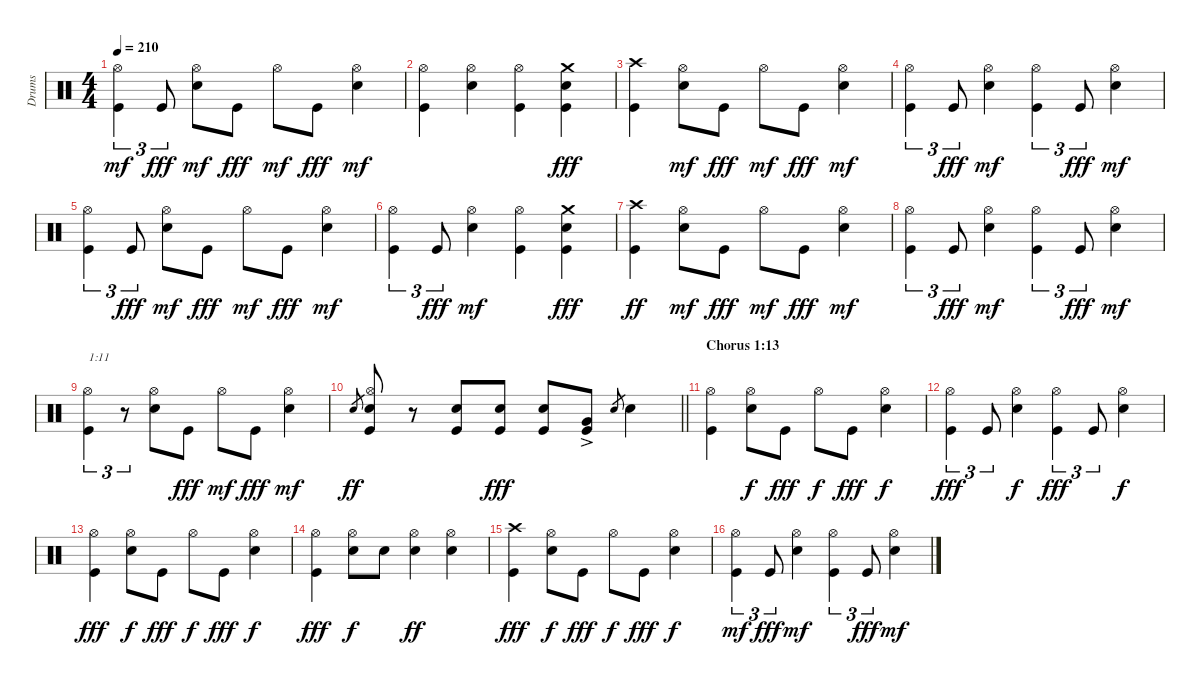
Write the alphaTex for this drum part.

\track ("Drums" "Drums") {instrument percussion}
\staff {score}
\articulation defaults
\ts (4 4)
\tempo 210
\clef neutral
\ks c
("Kick (hit)" "Hi-Hat (open)").4{tu (3 2) dy mf} "Kick (hit)".8{tu (3 2) dy fff} ("Electric Snare (hit)" "Hi-Hat (open)").8{dy mf} "Kick (hit)".8{dy fff} "Hi-Hat (open)".8{dy mf} "Kick (hit)".8{dy fff} ("Electric Snare (hit)" "Hi-Hat (open)").4{dy mf} |
("Kick (hit)" "Hi-Hat (open)").4 ("Electric Snare (hit)" "Hi-Hat (open)").4 ("Kick (hit)" "Hi-Hat (open)").4 ("Kick (hit)" "Electric Snare (hit)" "Crash medium (hit)").4{dy fff} |
("Kick (hit)" "Crash high (hit)").4 ("Electric Snare (hit)" "Hi-Hat (open)").8{dy mf} "Kick (hit)".8{dy fff} "Hi-Hat (open)".8{dy mf} "Kick (hit)".8{dy fff} ("Electric Snare (hit)" "Hi-Hat (open)").4{dy mf} |
("Kick (hit)" "Hi-Hat (open)").4{tu (3 2)} "Kick (hit)".8{tu (3 2) dy fff} ("Electric Snare (hit)" "Hi-Hat (open)").4{dy mf} ("Kick (hit)" "Hi-Hat (open)").4{tu (3 2)} "Kick (hit)".8{tu (3 2) dy fff} ("Electric Snare (hit)" "Hi-Hat (open)").4{dy mf} |
("Kick (hit)" "Hi-Hat (open)").4{tu (3 2)} "Kick (hit)".8{tu (3 2) dy fff} ("Electric Snare (hit)" "Hi-Hat (open)").8{dy mf} "Kick (hit)".8{dy fff} "Hi-Hat (open)".8{dy mf} "Kick (hit)".8{dy fff} ("Electric Snare (hit)" "Hi-Hat (open)").4{dy mf} |
("Kick (hit)" "Hi-Hat (open)").4{tu (3 2)} "Kick (hit)".8{tu (3 2) dy fff} ("Electric Snare (hit)" "Hi-Hat (open)").4{dy mf} ("Kick (hit)" "Hi-Hat (open)").4 ("Kick (hit)" "Electric Snare (hit)" "Crash medium (hit)").4{dy fff} |
("Kick (hit)" "Crash high (hit)").4{dy ff} ("Electric Snare (hit)" "Hi-Hat (open)").8{dy mf} "Kick (hit)".8{dy fff} "Hi-Hat (open)".8{dy mf} "Kick (hit)".8{dy fff} ("Electric Snare (hit)" "Hi-Hat (open)").4{dy mf} |
("Kick (hit)" "Hi-Hat (open)").4{tu (3 2)} "Kick (hit)".8{tu (3 2) dy fff} ("Electric Snare (hit)" "Hi-Hat (open)").4{dy mf} ("Kick (hit)" "Hi-Hat (open)").4{tu (3 2)} "Kick (hit)".8{tu (3 2) dy fff} ("Electric Snare (hit)" "Hi-Hat (open)").4{dy mf} |
("Kick (hit)" "Hi-Hat (open)").4{tu (3 2) txt "1:11"} r.8{tu (3 2)} ("Electric Snare (hit)" "Hi-Hat (open)").8 "Kick (hit)".8{dy fff} "Hi-Hat (open)".8{dy mf} "Kick (hit)".8{dy fff} ("Electric Snare (hit)" "Hi-Hat (open)").4{dy mf} |
\barLineRight lightlight "Electric Snare (hit)".8{gr dy ff}
("Kick (hit)" "Electric Snare (hit)" "Hi-Hat (open)").8 r.8 ("Kick (hit)" "Electric Snare (hit)").8 ("Kick (hit)" "Electric Snare (hit)").8{dy fff} ("Kick (hit)" "Electric Snare (hit)").8 ("Kick (hit)" "Very Low Tom (hit)"{ac}).8 "Electric Snare (hit)".8{gr} "Electric Snare (hit)".4 |
\section ("" "Chorus 1:13")
("Kick (hit)" "Hi-Hat (open)").4 ("Electric Snare (hit)" "Hi-Hat (open)").8{dy f} "Kick (hit)".8{dy fff} "Hi-Hat (open)".8{dy f} "Kick (hit)".8{dy fff} ("Electric Snare (hit)" "Hi-Hat (open)").4{dy f} |
("Kick (hit)" "Hi-Hat (open)").4{tu (3 2) dy fff} "Kick (hit)".8{tu (3 2)} ("Electric Snare (hit)" "Hi-Hat (open)").4{dy f} ("Kick (hit)" "Hi-Hat (open)").4{tu (3 2) dy fff} "Kick (hit)".8{tu (3 2)} ("Electric Snare (hit)" "Hi-Hat (open)").4{dy f} |
("Kick (hit)" "Hi-Hat (open)").4{dy fff} ("Electric Snare (hit)" "Hi-Hat (open)").8{dy f} "Kick (hit)".8{dy fff} "Hi-Hat (open)".8{dy f} "Kick (hit)".8{dy fff} ("Electric Snare (hit)" "Hi-Hat (open)").4{dy f} |
("Kick (hit)" "Hi-Hat (open)").4{dy fff} ("Electric Snare (hit)" "Hi-Hat (open)").8{dy f} "Electric Snare (hit)".8 ("Electric Snare (hit)" "Hi-Hat (open)").4{dy ff} ("Electric Snare (hit)" "Hi-Hat (open)").4 |
("Kick (hit)" "Crash high (hit)").4{dy fff} ("Electric Snare (hit)" "Hi-Hat (open)").8{dy f} "Kick (hit)".8{dy fff} "Hi-Hat (open)".8{dy f} "Kick (hit)".8{dy fff} ("Electric Snare (hit)" "Hi-Hat (open)").4{dy f} |
("Kick (hit)" "Hi-Hat (open)").4{tu (3 2) dy mf} "Kick (hit)".8{tu (3 2) dy fff} ("Electric Snare (hit)" "Hi-Hat (open)").4{dy mf} ("Kick (hit)" "Hi-Hat (open)").4{tu (3 2)} "Kick (hit)".8{tu (3 2) dy fff} ("Electric Snare (hit)" "Hi-Hat (open)").4{dy mf}
